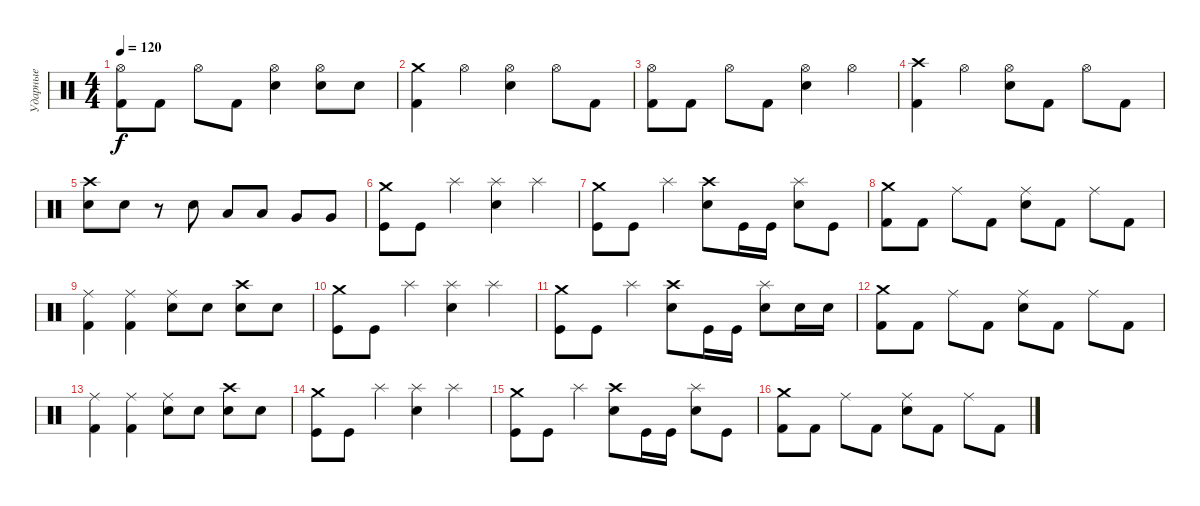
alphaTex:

\track ("Ударные" "Ударные") {instrument percussion}
\staff {score}
\articulation defaults
\ts (4 4)
\tempo 120
\clef neutral
\ks c
("Hi-Hat (open)" "Kick (hit) 2").8{dy f} "Kick (hit) 2".8 "Hi-Hat (open)".8 "Kick (hit) 2".8 ("Hi-Hat (open)" "Snare (hit) 2").4 ("Hi-Hat (open)" "Snare (hit) 2").8 "Snare (hit) 2".8 |
("Crash medium (hit)" "Kick (hit) 2").4 "Hi-Hat (open)".4 ("Hi-Hat (open)" "Snare (hit) 2").4 "Hi-Hat (open)".8 "Kick (hit) 2".8 |
("Hi-Hat (open)" "Kick (hit) 2").8 "Kick (hit) 2".8 "Hi-Hat (open)".8 "Kick (hit) 2".8 ("Hi-Hat (open)" "Snare (hit) 2").4 "Hi-Hat (open)".4 |
("Crash high (hit)" "Kick (hit) 2").4 "Hi-Hat (open)".4 ("Hi-Hat (open)" "Snare (hit) 2").8 "Kick (hit) 2".8 "Hi-Hat (open)".8 "Kick (hit) 2".8 |
("Crash high (hit)" "Snare (hit) 2").8 "Snare (hit) 2".8 r.8 "Snare (hit) 2".8 "Low Tom (hit)".8 "Low Tom (hit)".8 "Very Low Tom (hit)".8 "Very Low Tom (hit)".8 |
("Crash medium (hit)" "Kick (hit)").8 "Kick (hit)".8 "Splash (hit)".4 ("Splash (hit)" "Snare (hit) 2").4 "Splash (hit)".4 |
("Crash medium (hit)" "Kick (hit)").8 "Kick (hit)".8 "Splash (hit)".4 ("Crash high (hit)" "Snare (hit) 2").8 "Kick (hit)".16 "Kick (hit)".16 ("Splash (hit)" "Snare (hit) 2").8 "Kick (hit)".8 |
("Crash medium (hit)" "Kick (hit) 2").8 "Kick (hit) 2".8 "Ride (middle)".8 "Kick (hit) 2".8 ("Ride (middle)" "Snare (hit) 2").8 "Kick (hit) 2".8 "Ride (middle)".8 "Kick (hit) 2".8 |
("Ride (middle)" "Kick (hit) 2").4 ("Ride (middle)" "Kick (hit) 2").4 ("Ride (middle)" "Snare (hit) 2").8 "Snare (hit) 2".8 ("Crash high (hit)" "Snare (hit) 2").8 "Snare (hit) 2".8 |
("Crash medium (hit)" "Kick (hit)").8 "Kick (hit)".8 "Splash (hit)".4 ("Splash (hit)" "Snare (hit) 2").4 "Splash (hit)".4 |
("Crash medium (hit)" "Kick (hit)").8 "Kick (hit)".8 "Splash (hit)".4 ("Crash high (hit)" "Snare (hit) 2").8 "Kick (hit)".16 "Kick (hit)".16 ("Splash (hit)" "Snare (hit) 2").8 "Snare (hit) 2".16 "Snare (hit) 2".16 |
("Crash medium (hit)" "Kick (hit) 2").8 "Kick (hit) 2".8 "Ride (middle)".8 "Kick (hit) 2".8 ("Ride (middle)" "Snare (hit) 2").8 "Kick (hit) 2".8 "Ride (middle)".8 "Kick (hit) 2".8 |
("Ride (middle)" "Kick (hit) 2").4 ("Ride (middle)" "Kick (hit) 2").4 ("Ride (middle)" "Snare (hit) 2").8 "Snare (hit) 2".8 ("Crash high (hit)" "Snare (hit) 2").8 "Snare (hit) 2".8 |
("Crash medium (hit)" "Kick (hit)").8 "Kick (hit)".8 "Splash (hit)".4 ("Splash (hit)" "Snare (hit) 2").4 "Splash (hit)".4 |
("Crash medium (hit)" "Kick (hit)").8 "Kick (hit)".8 "Splash (hit)".4 ("Crash high (hit)" "Snare (hit) 2").8 "Kick (hit)".16 "Kick (hit)".16 ("Splash (hit)" "Snare (hit) 2").8 "Kick (hit)".8 |
("Crash medium (hit)" "Kick (hit) 2").8 "Kick (hit) 2".8 "Ride (middle)".8 "Kick (hit) 2".8 ("Ride (middle)" "Snare (hit) 2").8 "Kick (hit) 2".8 "Ride (middle)".8 "Kick (hit) 2".8
